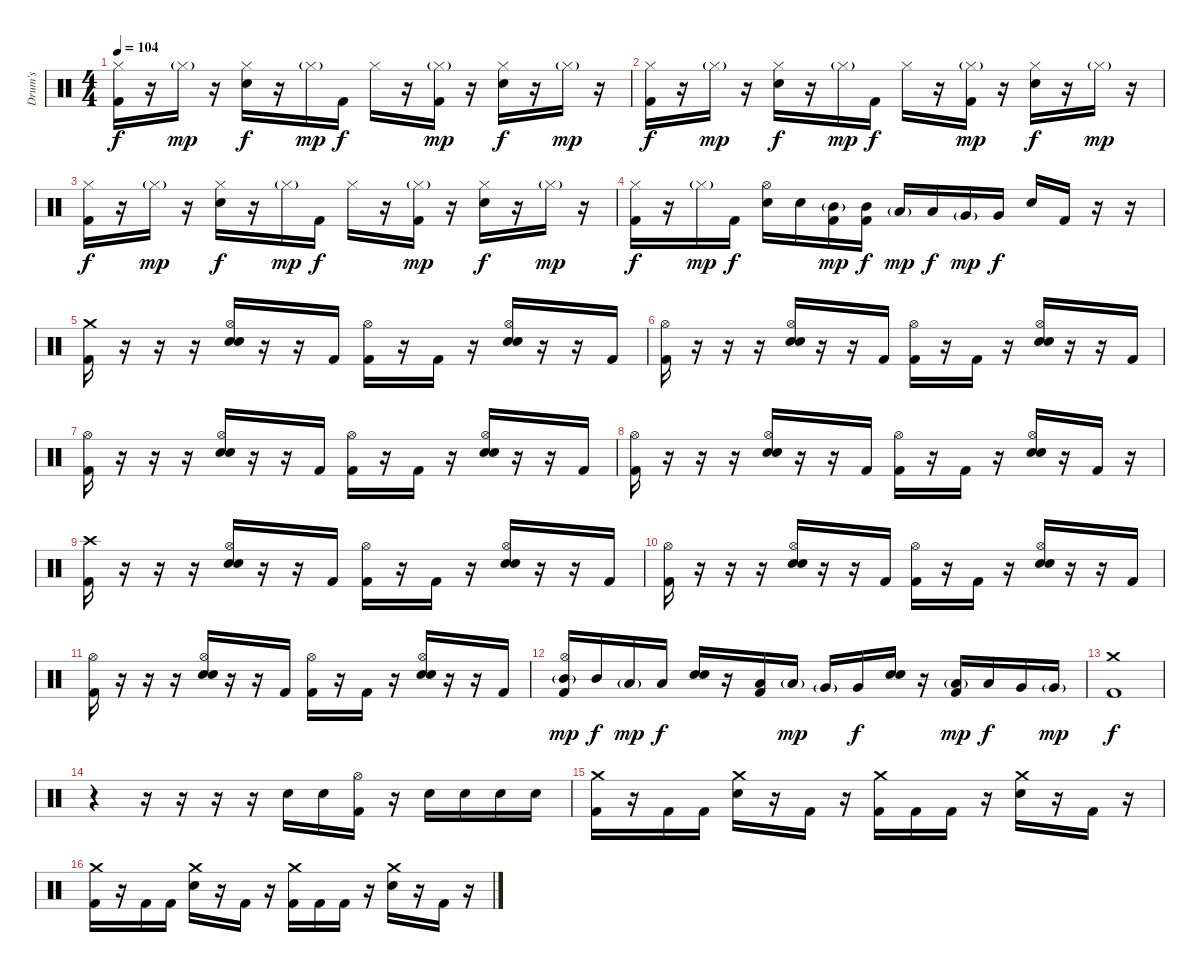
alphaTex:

\track ("Drum's" "Drum's") {instrument percussion}
\staff {score}
\articulation defaults
\ts (4 4)
\tempo 104
\clef neutral
\ks c
("Hi-Hat (closed)" "Kick (hit) 2").16{dy f} r.16 "Hi-Hat (closed)"{g}.16{dy mp} r.16 ("Hi-Hat (closed)" "Snare (hit) 2").16{dy f} r.16 "Hi-Hat (closed)"{g}.16{dy mp} "Kick (hit) 2".16{dy f} "Hi-Hat (closed)".16 r.16 ("Hi-Hat (closed)"{g} "Kick (hit) 2").16{dy mp} r.16 ("Hi-Hat (closed)" "Snare (hit) 2").16{dy f} r.16 "Hi-Hat (closed)"{g}.16{dy mp} r.16 |
("Hi-Hat (closed)" "Kick (hit) 2").16{dy f} r.16 "Hi-Hat (closed)"{g}.16{dy mp} r.16 ("Hi-Hat (closed)" "Snare (hit) 2").16{dy f} r.16 "Hi-Hat (closed)"{g}.16{dy mp} "Kick (hit) 2".16{dy f} "Hi-Hat (closed)".16 r.16 ("Hi-Hat (closed)"{g} "Kick (hit) 2").16{dy mp} r.16 ("Hi-Hat (closed)" "Snare (hit) 2").16{dy f} r.16 "Hi-Hat (closed)"{g}.16{dy mp} r.16 |
("Hi-Hat (closed)" "Kick (hit) 2").16{dy f} r.16 "Hi-Hat (closed)"{g}.16{dy mp} r.16 ("Hi-Hat (closed)" "Snare (hit) 2").16{dy f} r.16 "Hi-Hat (closed)"{g}.16{dy mp} "Kick (hit) 2".16{dy f} "Hi-Hat (closed)".16 r.16 ("Hi-Hat (closed)"{g} "Kick (hit) 2").16{dy mp} r.16 ("Hi-Hat (closed)" "Snare (hit) 2").16{dy f} r.16 "Hi-Hat (closed)"{g}.16{dy mp} r.16 |
("Hi-Hat (closed)" "Kick (hit) 2").16{dy f} r.16 "Hi-Hat (closed)"{g}.16{dy mp} "Kick (hit) 2".16{dy f} ("Hi-Hat (open)" "Snare (hit) 2").16 "Snare (hit) 2".16 ("Mid Tom (hit)"{g} "Kick (hit) 2").16{dy mp} ("Mid Tom (hit)" "Kick (hit) 2").16{dy f} "Low Tom (hit)"{g}.16{dy mp} "Low Tom (hit)".16{dy f} "Very Low Tom (hit)"{g}.16{dy mp} "Very Low Tom (hit)".16{dy f} "Snare (hit) 2".16 "Kick (hit) 2".16 r.16 r.16 |
("Crash medium (hit)" "Kick (hit) 2").16 r.16 r.16 r.16 ("Hi-Hat (open)" "Electric Snare (hit)" "Snare (hit) 2").16 r.16 r.16 "Kick (hit) 2".16 ("Hi-Hat (open)" "Kick (hit) 2").16 r.16 "Kick (hit) 2".16 r.16 ("Hi-Hat (open)" "Electric Snare (hit)" "Snare (hit) 2").16 r.16 r.16 "Kick (hit) 2".16 |
("Hi-Hat (open)" "Kick (hit) 2").16 r.16 r.16 r.16 ("Hi-Hat (open)" "Electric Snare (hit)" "Snare (hit) 2").16 r.16 r.16 "Kick (hit) 2".16 ("Hi-Hat (open)" "Kick (hit) 2").16 r.16 "Kick (hit) 2".16 r.16 ("Hi-Hat (open)" "Electric Snare (hit)" "Snare (hit) 2").16 r.16 r.16 "Kick (hit) 2".16 |
("Hi-Hat (open)" "Kick (hit) 2").16 r.16 r.16 r.16 ("Hi-Hat (open)" "Electric Snare (hit)" "Snare (hit) 2").16 r.16 r.16 "Kick (hit) 2".16 ("Hi-Hat (open)" "Kick (hit) 2").16 r.16 "Kick (hit) 2".16 r.16 ("Hi-Hat (open)" "Electric Snare (hit)" "Snare (hit) 2").16 r.16 r.16 "Kick (hit) 2".16 |
("Hi-Hat (open)" "Kick (hit) 2").16 r.16 r.16 r.16 ("Hi-Hat (open)" "Electric Snare (hit)" "Snare (hit) 2").16 r.16 r.16 "Kick (hit) 2".16 ("Hi-Hat (open)" "Kick (hit) 2").16 r.16 "Kick (hit) 2".16 r.16 ("Hi-Hat (open)" "Electric Snare (hit)" "Snare (hit) 2").16 r.16 "Kick (hit) 2".16 r.16 |
("Crash high (hit)" "Kick (hit) 2").16 r.16 r.16 r.16 ("Hi-Hat (open)" "Electric Snare (hit)" "Snare (hit) 2").16 r.16 r.16 "Kick (hit) 2".16 ("Hi-Hat (open)" "Kick (hit) 2").16 r.16 "Kick (hit) 2".16 r.16 ("Hi-Hat (open)" "Electric Snare (hit)" "Snare (hit) 2").16 r.16 r.16 "Kick (hit) 2".16 |
("Hi-Hat (open)" "Kick (hit) 2").16 r.16 r.16 r.16 ("Hi-Hat (open)" "Electric Snare (hit)" "Snare (hit) 2").16 r.16 r.16 "Kick (hit) 2".16 ("Hi-Hat (open)" "Kick (hit) 2").16 r.16 "Kick (hit) 2".16 r.16 ("Hi-Hat (open)" "Electric Snare (hit)" "Snare (hit) 2").16 r.16 r.16 "Kick (hit) 2".16 |
("Hi-Hat (open)" "Kick (hit) 2").16 r.16 r.16 r.16 ("Hi-Hat (open)" "Electric Snare (hit)" "Snare (hit) 2").16 r.16 r.16 "Kick (hit) 2".16 ("Hi-Hat (open)" "Kick (hit) 2").16 r.16 "Kick (hit) 2".16 r.16 ("Hi-Hat (open)" "Electric Snare (hit)" "Snare (hit) 2").16 r.16 r.16 "Kick (hit) 2".16 |
("Hi-Hat (open)" "Mid Tom (hit)"{g} "Kick (hit) 2").16{dy mp} "Mid Tom (hit)".16{dy f} "Low Tom (hit)"{g}.16{dy mp} "Low Tom (hit)".16{dy f} ("Electric Snare (hit)" "Snare (hit) 2").16 r.16 ("Low Tom (hit)" "Kick (hit) 2").16 "Low Tom (hit)"{g}.16{dy mp} "Very Low Tom (hit)"{g}.16 "Very Low Tom (hit)".16{dy f} ("Electric Snare (hit)" "Snare (hit) 2").16 r.16 ("Low Tom (hit)"{g} "Kick (hit) 2").16{dy mp} "Low Tom (hit)".16{dy f} "Very Low Tom (hit)".16 "Very Low Tom (hit)"{g}.16{dy mp} |
("Crash medium (hit)" "Kick (hit) 2").1{dy f} |
r.4 r.16 r.16 r.16 r.16 "Snare (hit) 2".16 "Snare (hit) 2".16 ("Hi-Hat (open)" "Kick (hit) 2").16 r.16 "Snare (hit) 2".16 "Snare (hit) 2".16 "Snare (hit) 2".16 "Snare (hit) 2".16 |
("Crash medium (hit)" "Kick (hit) 2").16 r.16 "Kick (hit) 2".16 "Kick (hit) 2".16 ("Crash medium (hit)" "Snare (hit) 2").16 r.16 "Kick (hit) 2".16 r.16 ("Crash medium (hit)" "Kick (hit) 2").16 "Kick (hit) 2".16 "Kick (hit) 2".16 r.16 ("Crash medium (hit)" "Snare (hit) 2").16 r.16 "Kick (hit) 2".16 r.16 |
("Crash medium (hit)" "Kick (hit) 2").16 r.16 "Kick (hit) 2".16 "Kick (hit) 2".16 ("Crash medium (hit)" "Snare (hit) 2").16 r.16 "Kick (hit) 2".16 r.16 ("Crash medium (hit)" "Kick (hit) 2").16 "Kick (hit) 2".16 "Kick (hit) 2".16 r.16 ("Crash medium (hit)" "Snare (hit) 2").16 r.16 "Kick (hit) 2".16 r.16
